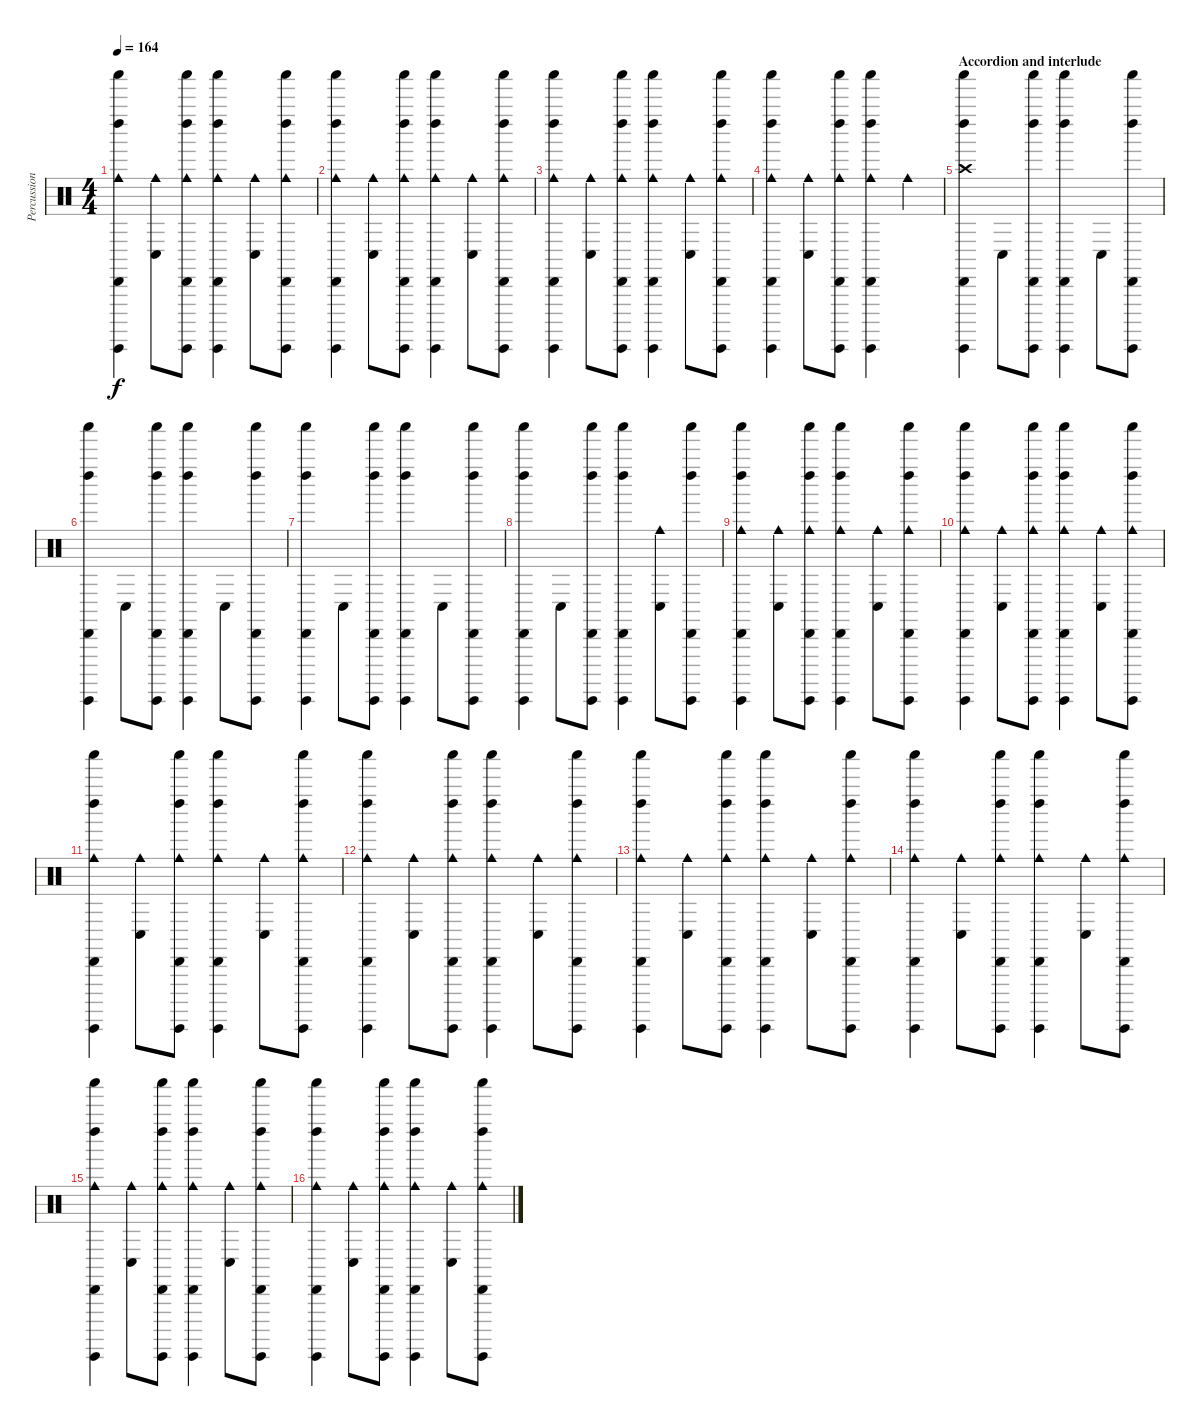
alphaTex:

\track ("Percussion" "Percussion") {instrument percussion}
\staff {score}
\articulation defaults
\ts (4 4)
\tempo 164
\clef neutral
\ks c
("Shaker (hit)" "Guiro (hit)" "Left Maraca (hit)" "Cabasa (hit)" "Cowbell medium (hit)").4{dy f} ("Conga low (hit)" "Cowbell medium (hit)").8 ("Shaker (hit)" "Guiro (hit)" "Left Maraca (hit)" "Cabasa (hit)" "Cowbell medium (hit)").8 ("Shaker (hit)" "Guiro (hit)" "Left Maraca (hit)" "Cabasa (hit)" "Cowbell medium (hit)").4 ("Conga low (hit)" "Cowbell medium (hit)").8 ("Shaker (hit)" "Guiro (hit)" "Left Maraca (hit)" "Cabasa (hit)" "Cowbell medium (hit)").8 |
("Shaker (hit)" "Guiro (hit)" "Left Maraca (hit)" "Cabasa (hit)" "Cowbell medium (hit)").4 ("Conga low (hit)" "Cowbell medium (hit)").8 ("Shaker (hit)" "Guiro (hit)" "Left Maraca (hit)" "Cabasa (hit)" "Cowbell medium (hit)").8 ("Shaker (hit)" "Guiro (hit)" "Left Maraca (hit)" "Cabasa (hit)" "Cowbell medium (hit)").4 ("Conga low (hit)" "Cowbell medium (hit)").8 ("Shaker (hit)" "Guiro (hit)" "Left Maraca (hit)" "Cabasa (hit)" "Cowbell medium (hit)").8 |
("Shaker (hit)" "Guiro (hit)" "Left Maraca (hit)" "Cabasa (hit)" "Cowbell medium (hit)").4 ("Conga low (hit)" "Cowbell medium (hit)").8 ("Shaker (hit)" "Guiro (hit)" "Left Maraca (hit)" "Cabasa (hit)" "Cowbell medium (hit)").8 ("Shaker (hit)" "Guiro (hit)" "Left Maraca (hit)" "Cabasa (hit)" "Cowbell medium (hit)").4 ("Conga low (hit)" "Cowbell medium (hit)").8 ("Shaker (hit)" "Guiro (hit)" "Left Maraca (hit)" "Cabasa (hit)" "Cowbell medium (hit)").8 |
("Shaker (hit)" "Guiro (hit)" "Left Maraca (hit)" "Cabasa (hit)" "Cowbell medium (hit)").4 ("Conga low (hit)" "Cowbell medium (hit)").8 ("Shaker (hit)" "Guiro (hit)" "Left Maraca (hit)" "Cabasa (hit)" "Cowbell medium (hit)").8 ("Shaker (hit)" "Guiro (hit)" "Left Maraca (hit)" "Cabasa (hit)" "Cowbell medium (hit)").4 "Cowbell medium (hit)".4 |
\section ("" "Accordion and interlude")
("Shaker (hit)" "Guiro (hit)" "Left Maraca (hit)" "Cabasa (hit)" "Crash high (hit)").4 "Conga low (hit)".8 ("Shaker (hit)" "Guiro (hit)" "Left Maraca (hit)" "Cabasa (hit)").8 ("Shaker (hit)" "Guiro (hit)" "Left Maraca (hit)" "Cabasa (hit)").4 "Conga low (hit)".8 ("Shaker (hit)" "Guiro (hit)" "Left Maraca (hit)" "Cabasa (hit)").8 |
("Shaker (hit)" "Guiro (hit)" "Left Maraca (hit)" "Cabasa (hit)").4 "Conga low (hit)".8 ("Shaker (hit)" "Guiro (hit)" "Left Maraca (hit)" "Cabasa (hit)").8 ("Shaker (hit)" "Guiro (hit)" "Left Maraca (hit)" "Cabasa (hit)").4 "Conga low (hit)".8 ("Shaker (hit)" "Guiro (hit)" "Left Maraca (hit)" "Cabasa (hit)").8 |
("Shaker (hit)" "Guiro (hit)" "Left Maraca (hit)" "Cabasa (hit)").4 "Conga low (hit)".8 ("Shaker (hit)" "Guiro (hit)" "Left Maraca (hit)" "Cabasa (hit)").8 ("Shaker (hit)" "Guiro (hit)" "Left Maraca (hit)" "Cabasa (hit)").4 "Conga low (hit)".8 ("Shaker (hit)" "Guiro (hit)" "Left Maraca (hit)" "Cabasa (hit)").8 |
("Shaker (hit)" "Guiro (hit)" "Left Maraca (hit)" "Cabasa (hit)").4 "Conga low (hit)".8 ("Shaker (hit)" "Guiro (hit)" "Left Maraca (hit)" "Cabasa (hit)").8 ("Shaker (hit)" "Guiro (hit)" "Left Maraca (hit)" "Cabasa (hit)").4 ("Conga low (hit)" "Cowbell medium (hit)").8 ("Shaker (hit)" "Guiro (hit)" "Left Maraca (hit)" "Cabasa (hit)").8 |
("Shaker (hit)" "Guiro (hit)" "Left Maraca (hit)" "Cabasa (hit)" "Cowbell medium (hit)").4 ("Conga low (hit)" "Cowbell medium (hit)").8 ("Shaker (hit)" "Guiro (hit)" "Left Maraca (hit)" "Cabasa (hit)" "Cowbell medium (hit)").8 ("Shaker (hit)" "Guiro (hit)" "Left Maraca (hit)" "Cabasa (hit)" "Cowbell medium (hit)").4 ("Conga low (hit)" "Cowbell medium (hit)").8 ("Shaker (hit)" "Guiro (hit)" "Left Maraca (hit)" "Cabasa (hit)" "Cowbell medium (hit)").8 |
("Shaker (hit)" "Guiro (hit)" "Left Maraca (hit)" "Cabasa (hit)" "Cowbell medium (hit)").4 ("Conga low (hit)" "Cowbell medium (hit)").8 ("Shaker (hit)" "Guiro (hit)" "Left Maraca (hit)" "Cabasa (hit)" "Cowbell medium (hit)").8 ("Shaker (hit)" "Guiro (hit)" "Left Maraca (hit)" "Cabasa (hit)" "Cowbell medium (hit)").4 ("Conga low (hit)" "Cowbell medium (hit)").8 ("Shaker (hit)" "Guiro (hit)" "Left Maraca (hit)" "Cabasa (hit)" "Cowbell medium (hit)").8 |
("Shaker (hit)" "Guiro (hit)" "Left Maraca (hit)" "Cabasa (hit)" "Cowbell medium (hit)").4 ("Conga low (hit)" "Cowbell medium (hit)").8 ("Shaker (hit)" "Guiro (hit)" "Left Maraca (hit)" "Cabasa (hit)" "Cowbell medium (hit)").8 ("Shaker (hit)" "Guiro (hit)" "Left Maraca (hit)" "Cabasa (hit)" "Cowbell medium (hit)").4 ("Conga low (hit)" "Cowbell medium (hit)").8 ("Shaker (hit)" "Guiro (hit)" "Left Maraca (hit)" "Cabasa (hit)" "Cowbell medium (hit)").8 |
("Shaker (hit)" "Guiro (hit)" "Left Maraca (hit)" "Cabasa (hit)" "Cowbell medium (hit)").4 ("Conga low (hit)" "Cowbell medium (hit)").8 ("Shaker (hit)" "Guiro (hit)" "Left Maraca (hit)" "Cabasa (hit)" "Cowbell medium (hit)").8 ("Shaker (hit)" "Guiro (hit)" "Left Maraca (hit)" "Cabasa (hit)" "Cowbell medium (hit)").4 ("Conga low (hit)" "Cowbell medium (hit)").8 ("Shaker (hit)" "Guiro (hit)" "Left Maraca (hit)" "Cabasa (hit)" "Cowbell medium (hit)").8 |
("Shaker (hit)" "Guiro (hit)" "Left Maraca (hit)" "Cabasa (hit)" "Cowbell medium (hit)").4 ("Conga low (hit)" "Cowbell medium (hit)").8 ("Shaker (hit)" "Guiro (hit)" "Left Maraca (hit)" "Cabasa (hit)" "Cowbell medium (hit)").8 ("Shaker (hit)" "Guiro (hit)" "Left Maraca (hit)" "Cabasa (hit)" "Cowbell medium (hit)").4 ("Conga low (hit)" "Cowbell medium (hit)").8 ("Shaker (hit)" "Guiro (hit)" "Left Maraca (hit)" "Cabasa (hit)" "Cowbell medium (hit)").8 |
("Shaker (hit)" "Guiro (hit)" "Left Maraca (hit)" "Cabasa (hit)" "Cowbell medium (hit)").4 ("Conga low (hit)" "Cowbell medium (hit)").8 ("Shaker (hit)" "Guiro (hit)" "Left Maraca (hit)" "Cabasa (hit)" "Cowbell medium (hit)").8 ("Shaker (hit)" "Guiro (hit)" "Left Maraca (hit)" "Cabasa (hit)" "Cowbell medium (hit)").4 ("Conga low (hit)" "Cowbell medium (hit)").8 ("Shaker (hit)" "Guiro (hit)" "Left Maraca (hit)" "Cabasa (hit)" "Cowbell medium (hit)").8 |
("Shaker (hit)" "Guiro (hit)" "Left Maraca (hit)" "Cabasa (hit)" "Cowbell medium (hit)").4 ("Conga low (hit)" "Cowbell medium (hit)").8 ("Shaker (hit)" "Guiro (hit)" "Left Maraca (hit)" "Cabasa (hit)" "Cowbell medium (hit)").8 ("Shaker (hit)" "Guiro (hit)" "Left Maraca (hit)" "Cabasa (hit)" "Cowbell medium (hit)").4 ("Conga low (hit)" "Cowbell medium (hit)").8 ("Shaker (hit)" "Guiro (hit)" "Left Maraca (hit)" "Cabasa (hit)" "Cowbell medium (hit)").8 |
("Shaker (hit)" "Guiro (hit)" "Left Maraca (hit)" "Cabasa (hit)" "Cowbell medium (hit)").4 ("Conga low (hit)" "Cowbell medium (hit)").8 ("Shaker (hit)" "Guiro (hit)" "Left Maraca (hit)" "Cabasa (hit)" "Cowbell medium (hit)").8 ("Shaker (hit)" "Guiro (hit)" "Left Maraca (hit)" "Cabasa (hit)" "Cowbell medium (hit)").4 ("Conga low (hit)" "Cowbell medium (hit)").8 ("Shaker (hit)" "Guiro (hit)" "Left Maraca (hit)" "Cabasa (hit)" "Cowbell medium (hit)").8
